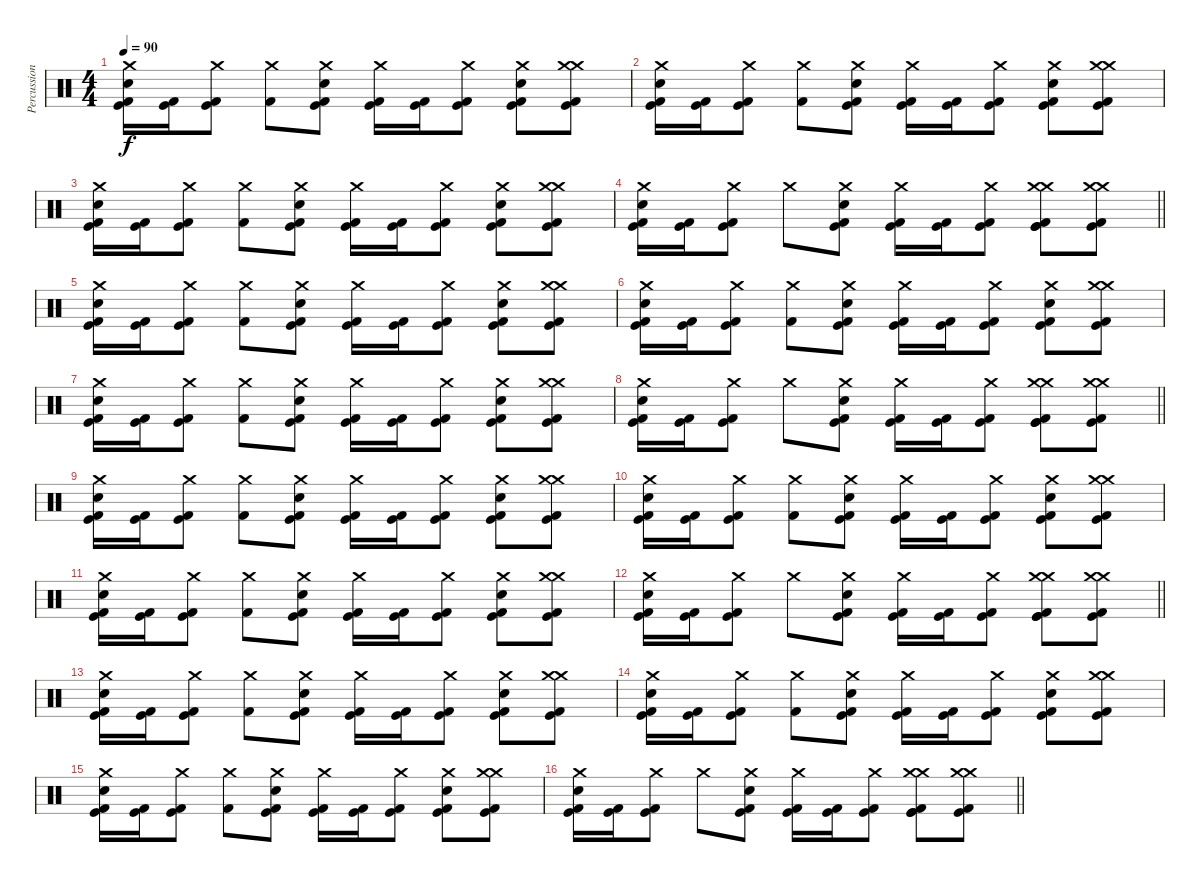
\track ("Percussion" "Percussion") {instrument percussion}
\staff {score}
\articulation defaults
\ts (4 4)
\tempo 90
\clef neutral
\ks c
("Crash medium (hit)" "Snare (hit) 2" "Kick (hit)" "Kick (hit) 2").16{dy f} ("Kick (hit)" "Kick (hit) 2").16 ("Crash medium (hit)" "Kick (hit)" "Kick (hit) 2").8 ("Crash medium (hit)" "Kick (hit) 2").8 ("Crash medium (hit)" "Snare (hit) 2" "Kick (hit)" "Kick (hit) 2").8 ("Crash medium (hit)" "Kick (hit)" "Kick (hit) 2").16 ("Kick (hit)" "Kick (hit) 2").16 ("Crash medium (hit)" "Kick (hit)" "Kick (hit) 2").8 ("Crash medium (hit)" "Snare (hit) 2" "Kick (hit)" "Kick (hit) 2").8 ("Crash medium (hit)" "Crash medium (hit)" "Kick (hit)" "Kick (hit) 2").8 |
("Crash medium (hit)" "Snare (hit) 2" "Kick (hit)" "Kick (hit) 2").16 ("Kick (hit)" "Kick (hit) 2").16 ("Crash medium (hit)" "Kick (hit)" "Kick (hit) 2").8 ("Crash medium (hit)" "Kick (hit) 2").8 ("Crash medium (hit)" "Snare (hit) 2" "Kick (hit)" "Kick (hit) 2").8 ("Crash medium (hit)" "Kick (hit)" "Kick (hit) 2").16 ("Kick (hit)" "Kick (hit) 2").16 ("Crash medium (hit)" "Kick (hit)" "Kick (hit) 2").8 ("Crash medium (hit)" "Snare (hit) 2" "Kick (hit)" "Kick (hit) 2").8 ("Crash medium (hit)" "Crash medium (hit)" "Kick (hit)" "Kick (hit) 2").8 |
("Crash medium (hit)" "Snare (hit) 2" "Kick (hit)" "Kick (hit) 2").16 ("Kick (hit)" "Kick (hit) 2").16 ("Crash medium (hit)" "Kick (hit)" "Kick (hit) 2").8 ("Crash medium (hit)" "Kick (hit) 2").8 ("Crash medium (hit)" "Snare (hit) 2" "Kick (hit)" "Kick (hit) 2").8 ("Crash medium (hit)" "Kick (hit)" "Kick (hit) 2").16 ("Kick (hit)" "Kick (hit) 2").16 ("Crash medium (hit)" "Kick (hit)" "Kick (hit) 2").8 ("Crash medium (hit)" "Snare (hit) 2" "Kick (hit)" "Kick (hit) 2").8 ("Crash medium (hit)" "Crash medium (hit)" "Kick (hit)" "Kick (hit) 2").8 |
\barLineRight lightlight
("Crash medium (hit)" "Snare (hit) 2" "Kick (hit)" "Kick (hit) 2").16 ("Kick (hit)" "Kick (hit) 2").16 ("Crash medium (hit)" "Kick (hit)" "Kick (hit) 2").8 "Crash medium (hit)".8 ("Crash medium (hit)" "Snare (hit) 2" "Kick (hit)" "Kick (hit) 2").8 ("Crash medium (hit)" "Kick (hit)" "Kick (hit) 2").16 ("Kick (hit)" "Kick (hit) 2").16 ("Crash medium (hit)" "Kick (hit)" "Kick (hit) 2").8 ("Crash medium (hit)" "Crash medium (hit)" "Kick (hit)" "Kick (hit)" "Kick (hit) 2").8 ("Crash medium (hit)" "Crash medium (hit)" "Kick (hit)" "Kick (hit) 2").8 |
\section ("" "")
("Crash medium (hit)" "Snare (hit) 2" "Kick (hit)" "Kick (hit) 2").16 ("Kick (hit)" "Kick (hit) 2").16 ("Crash medium (hit)" "Kick (hit)" "Kick (hit) 2").8 ("Crash medium (hit)" "Kick (hit) 2").8 ("Crash medium (hit)" "Snare (hit) 2" "Kick (hit)" "Kick (hit) 2").8 ("Crash medium (hit)" "Kick (hit)" "Kick (hit) 2").16 ("Kick (hit)" "Kick (hit) 2").16 ("Crash medium (hit)" "Kick (hit)" "Kick (hit) 2").8 ("Crash medium (hit)" "Snare (hit) 2" "Kick (hit)" "Kick (hit) 2").8 ("Crash medium (hit)" "Crash medium (hit)" "Kick (hit)" "Kick (hit) 2").8 |
("Crash medium (hit)" "Snare (hit) 2" "Kick (hit)" "Kick (hit) 2").16 ("Kick (hit)" "Kick (hit) 2").16 ("Crash medium (hit)" "Kick (hit)" "Kick (hit) 2").8 ("Crash medium (hit)" "Kick (hit) 2").8 ("Crash medium (hit)" "Snare (hit) 2" "Kick (hit)" "Kick (hit) 2").8 ("Crash medium (hit)" "Kick (hit)" "Kick (hit) 2").16 ("Kick (hit)" "Kick (hit) 2").16 ("Crash medium (hit)" "Kick (hit)" "Kick (hit) 2").8 ("Crash medium (hit)" "Snare (hit) 2" "Kick (hit)" "Kick (hit) 2").8 ("Crash medium (hit)" "Crash medium (hit)" "Kick (hit)" "Kick (hit) 2").8 |
("Crash medium (hit)" "Snare (hit) 2" "Kick (hit)" "Kick (hit) 2").16 ("Kick (hit)" "Kick (hit) 2").16 ("Crash medium (hit)" "Kick (hit)" "Kick (hit) 2").8 ("Crash medium (hit)" "Kick (hit) 2").8 ("Crash medium (hit)" "Snare (hit) 2" "Kick (hit)" "Kick (hit) 2").8 ("Crash medium (hit)" "Kick (hit)" "Kick (hit) 2").16 ("Kick (hit)" "Kick (hit) 2").16 ("Crash medium (hit)" "Kick (hit)" "Kick (hit) 2").8 ("Crash medium (hit)" "Snare (hit) 2" "Kick (hit)" "Kick (hit) 2").8 ("Crash medium (hit)" "Crash medium (hit)" "Kick (hit)" "Kick (hit) 2").8 |
\barLineRight lightlight
("Crash medium (hit)" "Snare (hit) 2" "Kick (hit)" "Kick (hit) 2").16 ("Kick (hit)" "Kick (hit) 2").16 ("Crash medium (hit)" "Kick (hit)" "Kick (hit) 2").8 "Crash medium (hit)".8 ("Crash medium (hit)" "Snare (hit) 2" "Kick (hit)" "Kick (hit) 2").8 ("Crash medium (hit)" "Kick (hit)" "Kick (hit) 2").16 ("Kick (hit)" "Kick (hit) 2").16 ("Crash medium (hit)" "Kick (hit)" "Kick (hit) 2").8 ("Crash medium (hit)" "Crash medium (hit)" "Kick (hit)" "Kick (hit)" "Kick (hit) 2").8 ("Crash medium (hit)" "Crash medium (hit)" "Kick (hit)" "Kick (hit) 2").8 |
("Crash medium (hit)" "Snare (hit) 2" "Kick (hit)" "Kick (hit) 2").16 ("Kick (hit)" "Kick (hit) 2").16 ("Crash medium (hit)" "Kick (hit)" "Kick (hit) 2").8 ("Crash medium (hit)" "Kick (hit) 2").8 ("Crash medium (hit)" "Snare (hit) 2" "Kick (hit)" "Kick (hit) 2").8 ("Crash medium (hit)" "Kick (hit)" "Kick (hit) 2").16 ("Kick (hit)" "Kick (hit) 2").16 ("Crash medium (hit)" "Kick (hit)" "Kick (hit) 2").8 ("Crash medium (hit)" "Snare (hit) 2" "Kick (hit)" "Kick (hit) 2").8 ("Crash medium (hit)" "Crash medium (hit)" "Kick (hit)" "Kick (hit) 2").8 |
("Crash medium (hit)" "Snare (hit) 2" "Kick (hit)" "Kick (hit) 2").16 ("Kick (hit)" "Kick (hit) 2").16 ("Crash medium (hit)" "Kick (hit)" "Kick (hit) 2").8 ("Crash medium (hit)" "Kick (hit) 2").8 ("Crash medium (hit)" "Snare (hit) 2" "Kick (hit)" "Kick (hit) 2").8 ("Crash medium (hit)" "Kick (hit)" "Kick (hit) 2").16 ("Kick (hit)" "Kick (hit) 2").16 ("Crash medium (hit)" "Kick (hit)" "Kick (hit) 2").8 ("Crash medium (hit)" "Snare (hit) 2" "Kick (hit)" "Kick (hit) 2").8 ("Crash medium (hit)" "Crash medium (hit)" "Kick (hit)" "Kick (hit) 2").8 |
("Crash medium (hit)" "Snare (hit) 2" "Kick (hit)" "Kick (hit) 2").16 ("Kick (hit)" "Kick (hit) 2").16 ("Crash medium (hit)" "Kick (hit)" "Kick (hit) 2").8 ("Crash medium (hit)" "Kick (hit) 2").8 ("Crash medium (hit)" "Snare (hit) 2" "Kick (hit)" "Kick (hit) 2").8 ("Crash medium (hit)" "Kick (hit)" "Kick (hit) 2").16 ("Kick (hit)" "Kick (hit) 2").16 ("Crash medium (hit)" "Kick (hit)" "Kick (hit) 2").8 ("Crash medium (hit)" "Snare (hit) 2" "Kick (hit)" "Kick (hit) 2").8 ("Crash medium (hit)" "Crash medium (hit)" "Kick (hit)" "Kick (hit) 2").8 |
\barLineRight lightlight
("Crash medium (hit)" "Snare (hit) 2" "Kick (hit)" "Kick (hit) 2").16 ("Kick (hit)" "Kick (hit) 2").16 ("Crash medium (hit)" "Kick (hit)" "Kick (hit) 2").8 "Crash medium (hit)".8 ("Crash medium (hit)" "Snare (hit) 2" "Kick (hit)" "Kick (hit) 2").8 ("Crash medium (hit)" "Kick (hit)" "Kick (hit) 2").16 ("Kick (hit)" "Kick (hit) 2").16 ("Crash medium (hit)" "Kick (hit)" "Kick (hit) 2").8 ("Crash medium (hit)" "Crash medium (hit)" "Kick (hit)" "Kick (hit)" "Kick (hit) 2").8 ("Crash medium (hit)" "Crash medium (hit)" "Kick (hit)" "Kick (hit) 2").8 |
\section ("" "")
("Crash medium (hit)" "Snare (hit) 2" "Kick (hit)" "Kick (hit) 2").16 ("Kick (hit)" "Kick (hit) 2").16 ("Crash medium (hit)" "Kick (hit)" "Kick (hit) 2").8 ("Crash medium (hit)" "Kick (hit) 2").8 ("Crash medium (hit)" "Snare (hit) 2" "Kick (hit)" "Kick (hit) 2").8 ("Crash medium (hit)" "Kick (hit)" "Kick (hit) 2").16 ("Kick (hit)" "Kick (hit) 2").16 ("Crash medium (hit)" "Kick (hit)" "Kick (hit) 2").8 ("Crash medium (hit)" "Snare (hit) 2" "Kick (hit)" "Kick (hit) 2").8 ("Crash medium (hit)" "Crash medium (hit)" "Kick (hit)" "Kick (hit) 2").8 |
("Crash medium (hit)" "Snare (hit) 2" "Kick (hit)" "Kick (hit) 2").16 ("Kick (hit)" "Kick (hit) 2").16 ("Crash medium (hit)" "Kick (hit)" "Kick (hit) 2").8 ("Crash medium (hit)" "Kick (hit) 2").8 ("Crash medium (hit)" "Snare (hit) 2" "Kick (hit)" "Kick (hit) 2").8 ("Crash medium (hit)" "Kick (hit)" "Kick (hit) 2").16 ("Kick (hit)" "Kick (hit) 2").16 ("Crash medium (hit)" "Kick (hit)" "Kick (hit) 2").8 ("Crash medium (hit)" "Snare (hit) 2" "Kick (hit)" "Kick (hit) 2").8 ("Crash medium (hit)" "Crash medium (hit)" "Kick (hit)" "Kick (hit) 2").8 |
("Crash medium (hit)" "Snare (hit) 2" "Kick (hit)" "Kick (hit) 2").16 ("Kick (hit)" "Kick (hit) 2").16 ("Crash medium (hit)" "Kick (hit)" "Kick (hit) 2").8 ("Crash medium (hit)" "Kick (hit) 2").8 ("Crash medium (hit)" "Snare (hit) 2" "Kick (hit)" "Kick (hit) 2").8 ("Crash medium (hit)" "Kick (hit)" "Kick (hit) 2").16 ("Kick (hit)" "Kick (hit) 2").16 ("Crash medium (hit)" "Kick (hit)" "Kick (hit) 2").8 ("Crash medium (hit)" "Snare (hit) 2" "Kick (hit)" "Kick (hit) 2").8 ("Crash medium (hit)" "Crash medium (hit)" "Kick (hit)" "Kick (hit) 2").8 |
\barLineRight lightlight
("Crash medium (hit)" "Snare (hit) 2" "Kick (hit)" "Kick (hit) 2").16 ("Kick (hit)" "Kick (hit) 2").16 ("Crash medium (hit)" "Kick (hit)" "Kick (hit) 2").8 "Crash medium (hit)".8 ("Crash medium (hit)" "Snare (hit) 2" "Kick (hit)" "Kick (hit) 2").8 ("Crash medium (hit)" "Kick (hit)" "Kick (hit) 2").16 ("Kick (hit)" "Kick (hit) 2").16 ("Crash medium (hit)" "Kick (hit)" "Kick (hit) 2").8 ("Crash medium (hit)" "Crash medium (hit)" "Kick (hit)" "Kick (hit)" "Kick (hit) 2").8 ("Crash medium (hit)" "Crash medium (hit)" "Kick (hit)" "Kick (hit) 2").8
